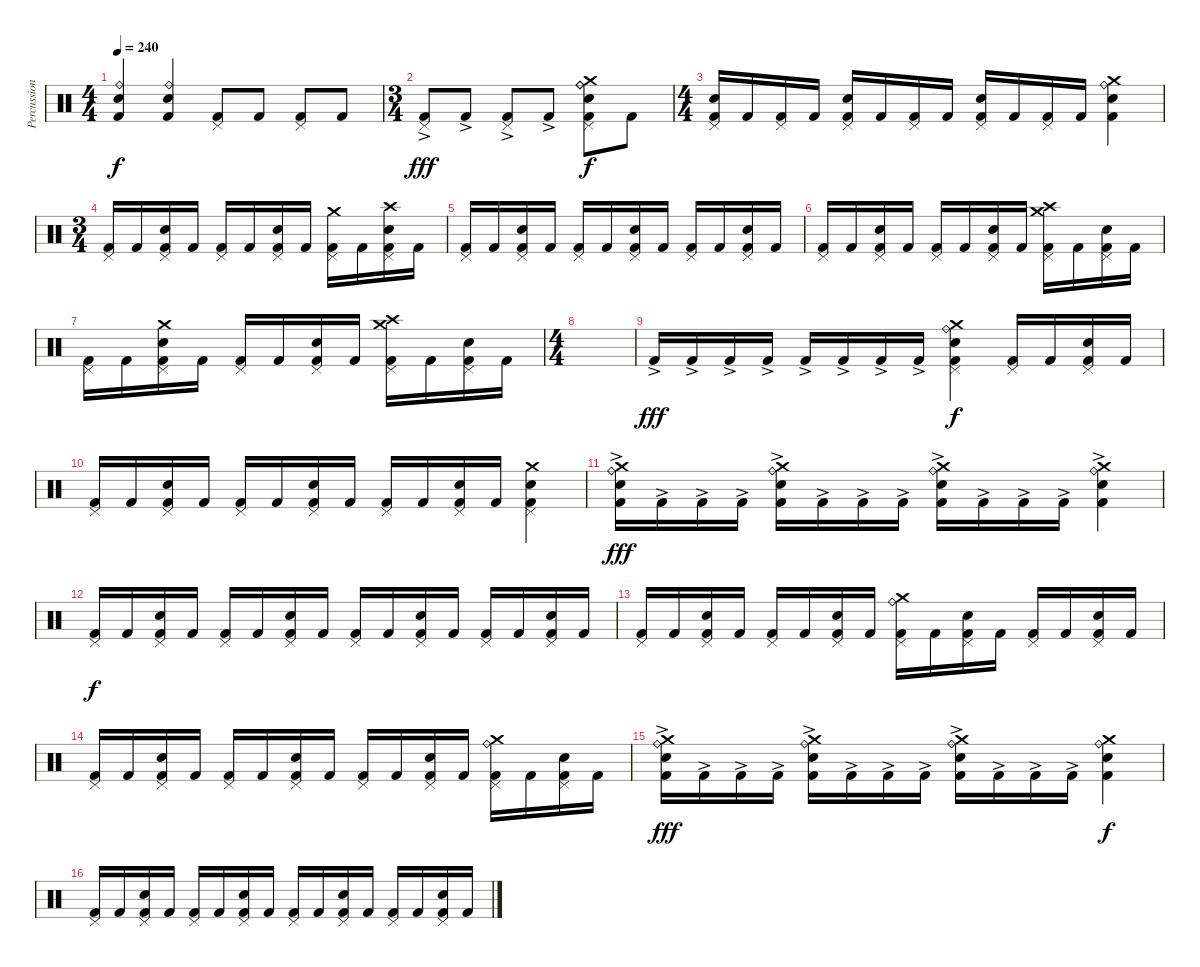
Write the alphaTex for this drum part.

\track ("Percussions" "Percussion") {instrument percussion}
\staff {score}
\articulation defaults
\ts (4 4)
\tempo 240
\clef neutral
\ks c
("Snare (hit) 2" "Ride (bell)" "Kick (hit) 2").4{dy f} ("Snare (hit) 2" "Ride (bell)" "Kick (hit) 2").4 ("Pedal Hi-Hat (hit)" "Kick (hit) 2").8 "Kick (hit) 2".8 ("Pedal Hi-Hat (hit)" "Kick (hit) 2").8 "Kick (hit) 2".8 |
\ts (3 4)
("Pedal Hi-Hat (hit)" "Kick (hit) 2"{ac}).8{dy fff} "Kick (hit) 2"{ac}.8 ("Pedal Hi-Hat (hit)" "Kick (hit) 2"{ac}).8 "Kick (hit) 2"{ac}.8 ("Crash medium (hit)" "Snare (hit) 2" "Ride (bell)" "Ride (bell)" "Pedal Hi-Hat (hit)" "Kick (hit) 2").8{dy f} "Kick (hit) 2".8 |
\ts (4 4)
("Snare (hit) 2" "Pedal Hi-Hat (hit)" "Kick (hit) 2").16 "Kick (hit) 2".16 ("Pedal Hi-Hat (hit)" "Kick (hit) 2").16 "Kick (hit) 2".16 ("Snare (hit) 2" "Pedal Hi-Hat (hit)" "Kick (hit) 2").16 "Kick (hit) 2".16 ("Pedal Hi-Hat (hit)" "Kick (hit) 2").16 "Kick (hit) 2".16 ("Snare (hit) 2" "Pedal Hi-Hat (hit)" "Kick (hit) 2").16 "Kick (hit) 2".16 ("Pedal Hi-Hat (hit)" "Kick (hit) 2").16 "Kick (hit) 2".16 ("Snare (hit) 2" "Crash medium (hit)" "Ride (bell)" "Kick (hit) 2").4 |
\ts (3 4)
("Pedal Hi-Hat (hit)" "Kick (hit) 2").16 "Kick (hit) 2".16 ("Snare (hit) 2" "Pedal Hi-Hat (hit)" "Kick (hit) 2").16 "Kick (hit) 2".16 ("Pedal Hi-Hat (hit)" "Kick (hit) 2").16 "Kick (hit) 2".16 ("Snare (hit) 2" "Pedal Hi-Hat (hit)" "Kick (hit) 2").16 "Kick (hit) 2".16 ("Crash medium (hit)" "Pedal Hi-Hat (hit)" "Kick (hit) 2").16 "Kick (hit) 2".16 ("Crash high (hit)" "Snare (hit) 2" "Pedal Hi-Hat (hit)" "Kick (hit) 2").16 "Kick (hit) 2".16 |
("Pedal Hi-Hat (hit)" "Kick (hit) 2").16 "Kick (hit) 2".16 ("Snare (hit) 2" "Pedal Hi-Hat (hit)" "Kick (hit) 2").16 "Kick (hit) 2".16 ("Pedal Hi-Hat (hit)" "Kick (hit) 2").16 "Kick (hit) 2".16 ("Snare (hit) 2" "Pedal Hi-Hat (hit)" "Kick (hit) 2").16 "Kick (hit) 2".16 ("Pedal Hi-Hat (hit)" "Kick (hit) 2").16 "Kick (hit) 2".16 ("Snare (hit) 2" "Pedal Hi-Hat (hit)" "Kick (hit) 2").16 "Kick (hit) 2".16 |
("Pedal Hi-Hat (hit)" "Kick (hit) 2").16 "Kick (hit) 2".16 ("Snare (hit) 2" "Pedal Hi-Hat (hit)" "Kick (hit) 2").16 "Kick (hit) 2".16 ("Pedal Hi-Hat (hit)" "Kick (hit) 2").16 "Kick (hit) 2".16 ("Snare (hit) 2" "Pedal Hi-Hat (hit)" "Kick (hit) 2").16 "Kick (hit) 2".16 ("Crash medium (hit)" "Crash high (hit)" "Pedal Hi-Hat (hit)" "Kick (hit) 2").16 "Kick (hit) 2".16 ("Snare (hit) 2" "Pedal Hi-Hat (hit)" "Kick (hit) 2").16 "Kick (hit) 2".16 |
("Pedal Hi-Hat (hit)" "Kick (hit) 2").16 "Kick (hit) 2".16 ("Crash medium (hit)" "Snare (hit) 2" "Pedal Hi-Hat (hit)" "Kick (hit) 2").16 "Kick (hit) 2".16 ("Pedal Hi-Hat (hit)" "Kick (hit) 2").16 "Kick (hit) 2".16 ("Snare (hit) 2" "Pedal Hi-Hat (hit)" "Kick (hit) 2").16 "Kick (hit) 2".16 ("Crash medium (hit)" "Crash high (hit)" "Pedal Hi-Hat (hit)" "Kick (hit) 2").16 "Kick (hit) 2".16 ("Snare (hit) 2" "Pedal Hi-Hat (hit)" "Kick (hit) 2").16 "Kick (hit) 2".16 |
\ts (4 4)
|
"Kick (hit) 2"{ac}.16{dy fff} "Kick (hit) 2"{ac}.16 "Kick (hit) 2"{ac}.16 "Kick (hit) 2"{ac}.16 "Kick (hit) 2"{ac}.16 "Kick (hit) 2"{ac}.16 "Kick (hit) 2"{ac}.16 "Kick (hit) 2"{ac}.16 ("Snare (hit) 2" "Crash medium (hit)" "Ride (bell)" "Pedal Hi-Hat (hit)" "Kick (hit) 2").4{dy f} ("Pedal Hi-Hat (hit)" "Kick (hit) 2").16 "Kick (hit) 2".16 ("Snare (hit) 2" "Pedal Hi-Hat (hit)" "Kick (hit) 2").16 "Kick (hit) 2".16 |
("Pedal Hi-Hat (hit)" "Kick (hit) 2").16 "Kick (hit) 2".16 ("Snare (hit) 2" "Pedal Hi-Hat (hit)" "Kick (hit) 2").16 "Kick (hit) 2".16 ("Pedal Hi-Hat (hit)" "Kick (hit) 2").16 "Kick (hit) 2".16 ("Snare (hit) 2" "Pedal Hi-Hat (hit)" "Kick (hit) 2").16 "Kick (hit) 2".16 ("Pedal Hi-Hat (hit)" "Kick (hit) 2").16 "Kick (hit) 2".16 ("Snare (hit) 2" "Pedal Hi-Hat (hit)" "Kick (hit) 2").16 "Kick (hit) 2".16 ("Snare (hit) 2" "Crash medium (hit)" "Pedal Hi-Hat (hit)" "Kick (hit) 2").4 |
("Snare (hit) 2" "Crash medium (hit)" "Ride (bell)" "Kick (hit) 2"{ac}).16{dy fff} "Kick (hit) 2"{ac}.16 "Kick (hit) 2"{ac}.16 "Kick (hit) 2"{ac}.16 ("Snare (hit) 2" "Crash medium (hit)" "Ride (bell)" "Kick (hit) 2"{ac}).16 "Kick (hit) 2"{ac}.16 "Kick (hit) 2"{ac}.16 "Kick (hit) 2"{ac}.16 ("Snare (hit) 2" "Crash medium (hit)" "Ride (bell)" "Kick (hit) 2"{ac}).16 "Kick (hit) 2"{ac}.16 "Kick (hit) 2"{ac}.16 "Kick (hit) 2"{ac}.16 ("Snare (hit) 2" "Crash medium (hit)" "Ride (bell)" "Kick (hit) 2"{ac}).4 |
("Pedal Hi-Hat (hit)" "Kick (hit) 2").16{dy f} "Kick (hit) 2".16 ("Snare (hit) 2" "Pedal Hi-Hat (hit)" "Kick (hit) 2").16 "Kick (hit) 2".16 ("Pedal Hi-Hat (hit)" "Kick (hit) 2").16 "Kick (hit) 2".16 ("Snare (hit) 2" "Pedal Hi-Hat (hit)" "Kick (hit) 2").16 "Kick (hit) 2".16 ("Pedal Hi-Hat (hit)" "Kick (hit) 2").16 "Kick (hit) 2".16 ("Snare (hit) 2" "Pedal Hi-Hat (hit)" "Kick (hit) 2").16 "Kick (hit) 2".16 ("Pedal Hi-Hat (hit)" "Kick (hit) 2").16 "Kick (hit) 2".16 ("Snare (hit) 2" "Pedal Hi-Hat (hit)" "Kick (hit) 2").16 "Kick (hit) 2".16 |
("Pedal Hi-Hat (hit)" "Kick (hit) 2").16 "Kick (hit) 2".16 ("Snare (hit) 2" "Pedal Hi-Hat (hit)" "Kick (hit) 2").16 "Kick (hit) 2".16 ("Pedal Hi-Hat (hit)" "Kick (hit) 2").16 "Kick (hit) 2".16 ("Snare (hit) 2" "Pedal Hi-Hat (hit)" "Kick (hit) 2").16 "Kick (hit) 2".16 ("Crash medium (hit)" "Ride (bell)" "Pedal Hi-Hat (hit)" "Kick (hit) 2").16 "Kick (hit) 2".16 ("Snare (hit) 2" "Pedal Hi-Hat (hit)" "Kick (hit) 2").16 "Kick (hit) 2".16 ("Pedal Hi-Hat (hit)" "Kick (hit) 2").16 "Kick (hit) 2".16 ("Snare (hit) 2" "Pedal Hi-Hat (hit)" "Kick (hit) 2").16 "Kick (hit) 2".16 |
("Pedal Hi-Hat (hit)" "Kick (hit) 2").16 "Kick (hit) 2".16 ("Snare (hit) 2" "Pedal Hi-Hat (hit)" "Kick (hit) 2").16 "Kick (hit) 2".16 ("Pedal Hi-Hat (hit)" "Kick (hit) 2").16 "Kick (hit) 2".16 ("Snare (hit) 2" "Pedal Hi-Hat (hit)" "Kick (hit) 2").16 "Kick (hit) 2".16 ("Pedal Hi-Hat (hit)" "Kick (hit) 2").16 "Kick (hit) 2".16 ("Snare (hit) 2" "Pedal Hi-Hat (hit)" "Kick (hit) 2").16 "Kick (hit) 2".16 ("Crash medium (hit)" "Ride (bell)" "Pedal Hi-Hat (hit)" "Kick (hit) 2").16 "Kick (hit) 2".16 ("Snare (hit) 2" "Pedal Hi-Hat (hit)" "Kick (hit) 2").16 "Kick (hit) 2".16 |
("Snare (hit) 2" "Crash medium (hit)" "Ride (bell)" "Kick (hit) 2"{ac}).16{dy fff} "Kick (hit) 2"{ac}.16 "Kick (hit) 2"{ac}.16 "Kick (hit) 2"{ac}.16 ("Snare (hit) 2" "Crash medium (hit)" "Ride (bell)" "Kick (hit) 2"{ac}).16 "Kick (hit) 2"{ac}.16 "Kick (hit) 2"{ac}.16 "Kick (hit) 2"{ac}.16 ("Snare (hit) 2" "Crash medium (hit)" "Ride (bell)" "Kick (hit) 2"{ac}).16 "Kick (hit) 2"{ac}.16 "Kick (hit) 2"{ac}.16 "Kick (hit) 2"{ac}.16 ("Snare (hit) 2" "Crash medium (hit)" "Ride (bell)" "Kick (hit) 2").4{dy f} |
("Pedal Hi-Hat (hit)" "Kick (hit) 2").16 "Kick (hit) 2".16 ("Snare (hit) 2" "Pedal Hi-Hat (hit)" "Kick (hit) 2").16 "Kick (hit) 2".16 ("Pedal Hi-Hat (hit)" "Kick (hit) 2").16 "Kick (hit) 2".16 ("Snare (hit) 2" "Pedal Hi-Hat (hit)" "Kick (hit) 2").16 "Kick (hit) 2".16 ("Pedal Hi-Hat (hit)" "Kick (hit) 2").16 "Kick (hit) 2".16 ("Snare (hit) 2" "Pedal Hi-Hat (hit)" "Kick (hit) 2").16 "Kick (hit) 2".16 ("Pedal Hi-Hat (hit)" "Kick (hit) 2").16 "Kick (hit) 2".16 ("Snare (hit) 2" "Pedal Hi-Hat (hit)" "Kick (hit) 2").16 "Kick (hit) 2".16
